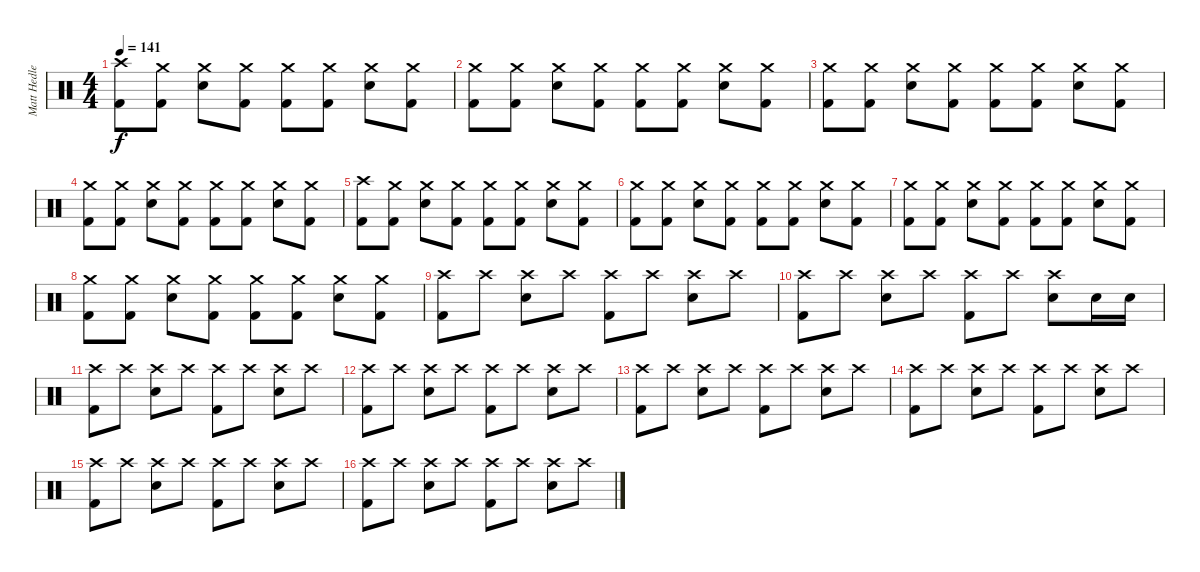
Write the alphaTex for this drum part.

\track ("Matt Hedlers" "Matt Hedle") {instrument percussion}
\staff {score}
\articulation defaults
\ts (4 4)
\tempo 141
\clef neutral
\ks c
("Crash high (hit)" "Kick (hit) 2").8{dy f} ("Crash medium (hit)" "Kick (hit) 2").8 ("Crash medium (hit)" "Snare (hit) 2").8 ("Crash medium (hit)" "Kick (hit) 2").8 ("Crash medium (hit)" "Kick (hit) 2").8 ("Crash medium (hit)" "Kick (hit) 2").8 ("Crash medium (hit)" "Snare (hit) 2").8 ("Crash medium (hit)" "Kick (hit) 2").8 |
("Crash medium (hit)" "Kick (hit) 2").8 ("Crash medium (hit)" "Kick (hit) 2").8 ("Crash medium (hit)" "Snare (hit) 2").8 ("Crash medium (hit)" "Kick (hit) 2").8 ("Crash medium (hit)" "Kick (hit) 2").8 ("Crash medium (hit)" "Kick (hit) 2").8 ("Crash medium (hit)" "Snare (hit) 2").8 ("Crash medium (hit)" "Kick (hit) 2").8 |
("Crash medium (hit)" "Kick (hit) 2").8 ("Crash medium (hit)" "Kick (hit) 2").8 ("Crash medium (hit)" "Snare (hit) 2").8 ("Crash medium (hit)" "Kick (hit) 2").8 ("Crash medium (hit)" "Kick (hit) 2").8 ("Crash medium (hit)" "Kick (hit) 2").8 ("Crash medium (hit)" "Snare (hit) 2").8 ("Crash medium (hit)" "Kick (hit) 2").8 |
("Crash medium (hit)" "Kick (hit) 2").8 ("Crash medium (hit)" "Kick (hit) 2").8 ("Crash medium (hit)" "Snare (hit) 2").8 ("Crash medium (hit)" "Kick (hit) 2").8 ("Crash medium (hit)" "Kick (hit) 2").8 ("Crash medium (hit)" "Kick (hit) 2").8 ("Crash medium (hit)" "Snare (hit) 2").8 ("Crash medium (hit)" "Kick (hit) 2").8 |
("Crash high (hit)" "Kick (hit) 2").8 ("Crash medium (hit)" "Kick (hit) 2").8 ("Crash medium (hit)" "Snare (hit) 2").8 ("Crash medium (hit)" "Kick (hit) 2").8 ("Crash medium (hit)" "Kick (hit) 2").8 ("Crash medium (hit)" "Kick (hit) 2").8 ("Crash medium (hit)" "Snare (hit) 2").8 ("Crash medium (hit)" "Kick (hit) 2").8 |
("Crash medium (hit)" "Kick (hit) 2").8 ("Crash medium (hit)" "Kick (hit) 2").8 ("Crash medium (hit)" "Snare (hit) 2").8 ("Crash medium (hit)" "Kick (hit) 2").8 ("Crash medium (hit)" "Kick (hit) 2").8 ("Crash medium (hit)" "Kick (hit) 2").8 ("Crash medium (hit)" "Snare (hit) 2").8 ("Crash medium (hit)" "Kick (hit) 2").8 |
("Crash medium (hit)" "Kick (hit) 2").8 ("Crash medium (hit)" "Kick (hit) 2").8 ("Crash medium (hit)" "Snare (hit) 2").8 ("Crash medium (hit)" "Kick (hit) 2").8 ("Crash medium (hit)" "Kick (hit) 2").8 ("Crash medium (hit)" "Kick (hit) 2").8 ("Crash medium (hit)" "Snare (hit) 2").8 ("Crash medium (hit)" "Kick (hit) 2").8 |
("Crash medium (hit)" "Kick (hit) 2").8 ("Crash medium (hit)" "Kick (hit) 2").8 ("Crash medium (hit)" "Snare (hit) 2").8 ("Crash medium (hit)" "Kick (hit) 2").8 ("Crash medium (hit)" "Kick (hit) 2").8 ("Crash medium (hit)" "Kick (hit) 2").8 ("Crash medium (hit)" "Snare (hit) 2").8 ("Crash medium (hit)" "Kick (hit) 2").8 |
("Crash high (hit)" "Kick (hit) 2").8 "Crash high (hit)".8 ("Crash high (hit)" "Snare (hit) 2").8 "Crash high (hit)".8 ("Crash high (hit)" "Kick (hit) 2").8 "Crash high (hit)".8 ("Crash high (hit)" "Snare (hit) 2").8 "Crash high (hit)".8 |
("Crash high (hit)" "Kick (hit) 2").8 "Crash high (hit)".8 ("Crash high (hit)" "Snare (hit) 2").8 "Crash high (hit)".8 ("Crash high (hit)" "Kick (hit) 2").8 "Crash high (hit)".8 ("Crash high (hit)" "Snare (hit) 2").8 "Snare (hit) 2".16 "Snare (hit) 2".16 |
("Crash high (hit)" "Kick (hit) 2").8 "Crash high (hit)".8 ("Crash high (hit)" "Snare (hit) 2").8 "Crash high (hit)".8 ("Crash high (hit)" "Kick (hit) 2").8 "Crash high (hit)".8 ("Crash high (hit)" "Snare (hit) 2").8 "Crash high (hit)".8 |
("Crash high (hit)" "Kick (hit) 2").8 "Crash high (hit)".8 ("Crash high (hit)" "Snare (hit) 2").8 "Crash high (hit)".8 ("Crash high (hit)" "Kick (hit) 2").8 "Crash high (hit)".8 ("Crash high (hit)" "Snare (hit) 2").8 "Crash high (hit)".8 |
("Crash high (hit)" "Kick (hit) 2").8 "Crash high (hit)".8 ("Crash high (hit)" "Snare (hit) 2").8 "Crash high (hit)".8 ("Crash high (hit)" "Kick (hit) 2").8 "Crash high (hit)".8 ("Crash high (hit)" "Snare (hit) 2").8 "Crash high (hit)".8 |
("Crash high (hit)" "Kick (hit) 2").8 "Crash high (hit)".8 ("Crash high (hit)" "Snare (hit) 2").8 "Crash high (hit)".8 ("Crash high (hit)" "Kick (hit) 2").8 "Crash high (hit)".8 ("Crash high (hit)" "Snare (hit) 2").8 "Crash high (hit)".8 |
("Crash high (hit)" "Kick (hit) 2").8 "Crash high (hit)".8 ("Crash high (hit)" "Snare (hit) 2").8 "Crash high (hit)".8 ("Crash high (hit)" "Kick (hit) 2").8 "Crash high (hit)".8 ("Crash high (hit)" "Snare (hit) 2").8 "Crash high (hit)".8 |
("Crash high (hit)" "Kick (hit) 2").8 "Crash high (hit)".8 ("Crash high (hit)" "Snare (hit) 2").8 "Crash high (hit)".8 ("Crash high (hit)" "Kick (hit) 2").8 "Crash high (hit)".8 ("Crash high (hit)" "Snare (hit) 2").8 "Crash high (hit)".8
